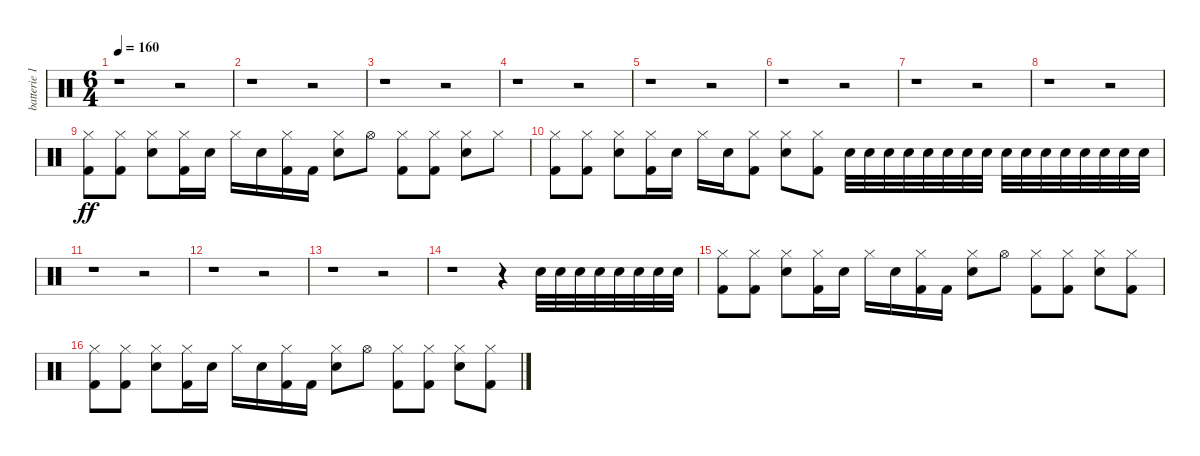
\track ("batterie 1" "batterie 1") {instrument percussion}
\staff {score}
\articulation defaults
\ts (6 4)
\tempo 160
\clef neutral
\ks c
r.1{dy ff} r.2 |
r.1 r.2 |
r.1 r.2 |
r.1 r.2 |
r.1 r.2 |
r.1 r.2 |
r.1 r.2 |
r.1 r.2 |
("Kick (hit) 2" "Hi-Hat (closed)").8 ("Kick (hit) 2" "Hi-Hat (closed)").8 ("Electric Snare (hit)" "Hi-Hat (closed)").8 ("Kick (hit) 2" "Hi-Hat (closed)").16 "Electric Snare (hit)".16 "Hi-Hat (closed)".16 "Electric Snare (hit)".16 ("Kick (hit) 2" "Hi-Hat (closed)").16 "Kick (hit) 2".16 ("Electric Snare (hit)" "Hi-Hat (closed)").8 "Hi-Hat (open)".8 ("Kick (hit) 2" "Hi-Hat (closed)").8 ("Kick (hit) 2" "Hi-Hat (closed)").8 ("Electric Snare (hit)" "Hi-Hat (closed)").8 "Hi-Hat (closed)".8 |
("Kick (hit) 2" "Hi-Hat (closed)").8 ("Kick (hit) 2" "Hi-Hat (closed)").8 ("Electric Snare (hit)" "Hi-Hat (closed)").8 ("Kick (hit) 2" "Hi-Hat (closed)").16 "Electric Snare (hit)".16 "Hi-Hat (closed)".16 "Electric Snare (hit)".16 ("Kick (hit) 2" "Hi-Hat (closed)").8 ("Electric Snare (hit)" "Hi-Hat (closed)").8 ("Kick (hit) 2" "Hi-Hat (closed)").8 "Electric Snare (hit)".32 "Electric Snare (hit)".32 "Electric Snare (hit)".32 "Electric Snare (hit)".32 "Electric Snare (hit)".32 "Electric Snare (hit)".32 "Electric Snare (hit)".32 "Electric Snare (hit)".32 "Electric Snare (hit)".32 "Electric Snare (hit)".32 "Electric Snare (hit)".32 "Electric Snare (hit)".32 "Electric Snare (hit)".32 "Electric Snare (hit)".32 "Electric Snare (hit)".32 "Electric Snare (hit)".32 |
r.1 r.2 |
r.1 r.2 |
r.1 r.2 |
r.1 r.4 "Electric Snare (hit)".32 "Electric Snare (hit)".32 "Electric Snare (hit)".32 "Electric Snare (hit)".32 "Electric Snare (hit)".32 "Electric Snare (hit)".32 "Electric Snare (hit)".32 "Electric Snare (hit)".32 |
("Kick (hit) 2" "Hi-Hat (closed)").8 ("Kick (hit) 2" "Hi-Hat (closed)").8 ("Electric Snare (hit)" "Hi-Hat (closed)").8 ("Kick (hit) 2" "Hi-Hat (closed)").16 "Electric Snare (hit)".16 "Hi-Hat (closed)".16 "Electric Snare (hit)".16 ("Kick (hit) 2" "Hi-Hat (closed)").16 "Kick (hit) 2".16 ("Electric Snare (hit)" "Hi-Hat (closed)").8 "Hi-Hat (open)".8 ("Kick (hit) 2" "Hi-Hat (closed)").8 ("Kick (hit) 2" "Hi-Hat (closed)").8 ("Electric Snare (hit)" "Hi-Hat (closed)").8 ("Kick (hit) 2" "Hi-Hat (closed)").8 |
("Kick (hit) 2" "Hi-Hat (closed)").8 ("Kick (hit) 2" "Hi-Hat (closed)").8 ("Electric Snare (hit)" "Hi-Hat (closed)").8 ("Kick (hit) 2" "Hi-Hat (closed)").16 "Electric Snare (hit)".16 "Hi-Hat (closed)".16 "Electric Snare (hit)".16 ("Kick (hit) 2" "Hi-Hat (closed)").16 "Kick (hit) 2".16 ("Electric Snare (hit)" "Hi-Hat (closed)").8 "Hi-Hat (open)".8 ("Kick (hit) 2" "Hi-Hat (closed)").8 ("Kick (hit) 2" "Hi-Hat (closed)").8 ("Electric Snare (hit)" "Hi-Hat (closed)").8 ("Kick (hit) 2" "Hi-Hat (closed)").8
